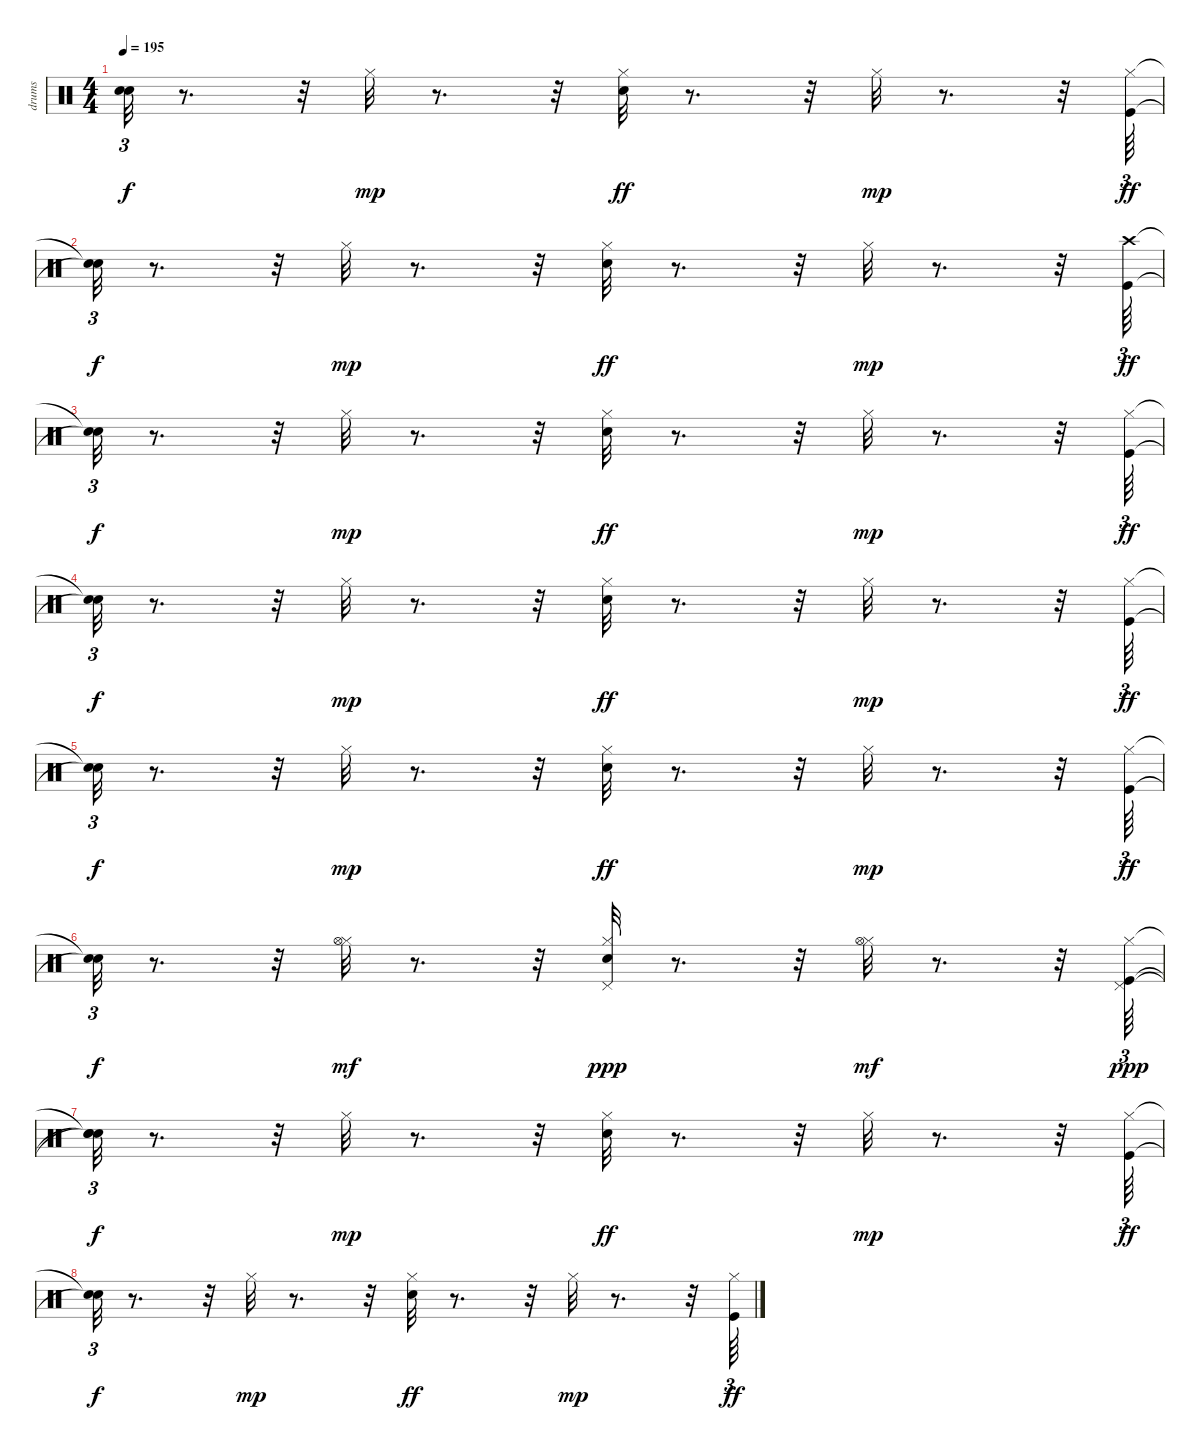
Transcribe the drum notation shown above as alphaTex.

\track ("drums" "drums") {instrument percussion}
\staff {score}
\articulation defaults
\ts (4 4)
\tempo 195
\clef neutral
\ks c
("Snare (hit)"{t} "Snare (hit)"{t}).32{tu (3 2) dy f} r.8{d} r.32 "Hi-Hat (closed)".32{dy mp} r.8{d} r.32 ("Snare (hit) 2" "Hi-Hat (closed)").32{dy ff} r.8{d} r.32 "Hi-Hat (closed)".32{dy mp} r.8{d} r.32 ("Kick (hit)" "Hi-Hat (closed)").64{tu (3 2) dy ff} |
("Snare (hit)"{t} "Snare (hit)"{t}).32{tu (3 2) dy f} r.8{d} r.32 "Hi-Hat (closed)".32{dy mp} r.8{d} r.32 ("Snare (hit) 2" "Hi-Hat (closed)").32{dy ff} r.8{d} r.32 "Hi-Hat (closed)".32{dy mp} r.8{d} r.32 ("Crash high (hit)" "Kick (hit)").64{tu (3 2) dy ff} |
("Snare (hit)"{t} "Snare (hit)"{t}).32{tu (3 2) dy f} r.8{d} r.32 "Hi-Hat (closed)".32{dy mp} r.8{d} r.32 ("Hi-Hat (closed)" "Snare (hit) 2").32{dy ff} r.8{d} r.32 "Hi-Hat (closed)".32{dy mp} r.8{d} r.32 ("Hi-Hat (closed)" "Kick (hit)").64{tu (3 2) dy ff} |
("Snare (hit)"{t} "Snare (hit)"{t}).32{tu (3 2) dy f} r.8{d} r.32 "Hi-Hat (closed)".32{dy mp} r.8{d} r.32 ("Snare (hit) 2" "Hi-Hat (closed)").32{dy ff} r.8{d} r.32 "Hi-Hat (closed)".32{dy mp} r.8{d} r.32 ("Hi-Hat (closed)" "Kick (hit)").64{tu (3 2) dy ff} |
("Snare (hit)"{t} "Snare (hit)"{t}).32{tu (3 2) dy f} r.8{d} r.32 "Hi-Hat (closed)".32{dy mp} r.8{d} r.32 ("Snare (hit) 2" "Hi-Hat (closed)").32{dy ff} r.8{d} r.32 "Hi-Hat (closed)".32{dy mp} r.8{d} r.32 ("Kick (hit)" "Hi-Hat (closed)").64{tu (3 2) dy ff} |
("Snare (hit)"{t} "Snare (hit)"{t}).32{tu (3 2) dy f} r.8{d} r.32 ("Hi-Hat (closed)" "Hi-Hat (open)").32{dy mf} r.8{d} r.32 ("Snare (hit) 2" "Hi-Hat (closed)" "Pedal Hi-Hat (hit)").32{dy ppp} r.8{d} r.32 ("Hi-Hat (closed)" "Hi-Hat (open)").32{dy mf} r.8{d} r.32 ("Hi-Hat (closed)" "Kick (hit)" "Pedal Hi-Hat (hit)").64{tu (3 2) dy ppp} |
("Snare (hit)"{t} "Snare (hit)"{t} "Snare (hit)"{t}).32{tu (3 2) dy f} r.8{d} r.32 "Hi-Hat (closed)".32{dy mp} r.8{d} r.32 ("Hi-Hat (closed)" "Snare (hit) 2").32{dy ff} r.8{d} r.32 "Hi-Hat (closed)".32{dy mp} r.8{d} r.32 ("Hi-Hat (closed)" "Kick (hit)").64{tu (3 2) dy ff} |
("Snare (hit)"{t} "Snare (hit)"{t}).32{tu (3 2) dy f} r.8{d} r.32 "Hi-Hat (closed)".32{dy mp} r.8{d} r.32 ("Snare (hit) 2" "Hi-Hat (closed)").32{dy ff} r.8{d} r.32 "Hi-Hat (closed)".32{dy mp} r.8{d} r.32 ("Kick (hit)" "Hi-Hat (closed)").64{tu (3 2) dy ff}
